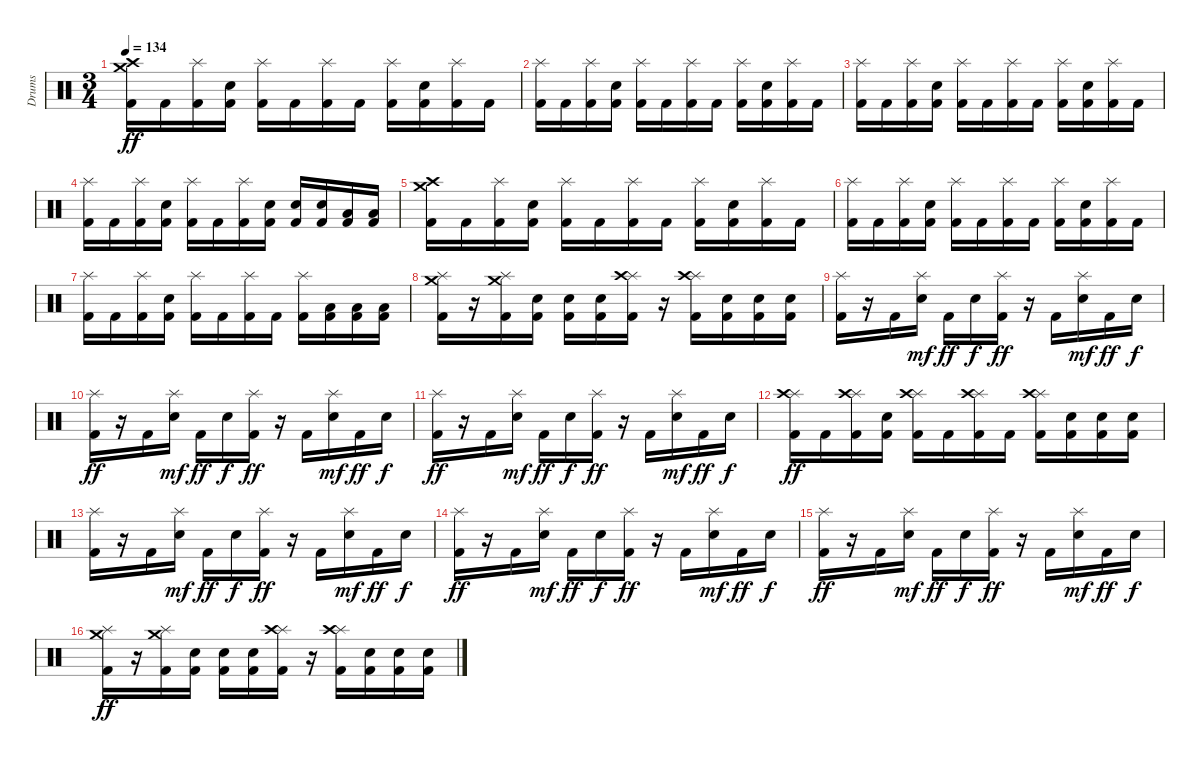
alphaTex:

\track ("Drums" "Drums") {instrument percussion}
\staff {score}
\articulation defaults
\ts (3 4)
\tempo 134
\clef neutral
\ks c
("Crash high (hit)" "Crash medium (hit)" "Kick (hit) 2").16{dy ff} "Kick (hit) 2".16 ("Splash (hit)" "Kick (hit) 2").16 ("Snare (hit) 2" "Kick (hit) 2").16 ("Splash (hit)" "Kick (hit) 2").16 "Kick (hit) 2".16 ("Splash (hit)" "Kick (hit) 2").16 "Kick (hit) 2".16 ("Splash (hit)" "Kick (hit) 2").16 ("Snare (hit) 2" "Kick (hit) 2").16 ("Splash (hit)" "Kick (hit) 2").16 "Kick (hit) 2".16 |
("Splash (hit)" "Kick (hit) 2").16 "Kick (hit) 2".16 ("Splash (hit)" "Kick (hit) 2").16 ("Snare (hit) 2" "Kick (hit) 2").16 ("Splash (hit)" "Kick (hit) 2").16 "Kick (hit) 2".16 ("Splash (hit)" "Kick (hit) 2").16 "Kick (hit) 2".16 ("Splash (hit)" "Kick (hit) 2").16 ("Snare (hit) 2" "Kick (hit) 2").16 ("Splash (hit)" "Kick (hit) 2").16 "Kick (hit) 2".16 |
("Splash (hit)" "Kick (hit) 2").16 "Kick (hit) 2".16 ("Splash (hit)" "Kick (hit) 2").16 ("Snare (hit) 2" "Kick (hit) 2").16 ("Splash (hit)" "Kick (hit) 2").16 "Kick (hit) 2".16 ("Splash (hit)" "Kick (hit) 2").16 "Kick (hit) 2".16 ("Splash (hit)" "Kick (hit) 2").16 ("Snare (hit) 2" "Kick (hit) 2").16 ("Splash (hit)" "Kick (hit) 2").16 "Kick (hit) 2".16 |
("Splash (hit)" "Kick (hit) 2").16 "Kick (hit) 2".16 ("Splash (hit)" "Kick (hit) 2").16 ("Snare (hit) 2" "Kick (hit) 2").16 ("Splash (hit)" "Kick (hit) 2").16 "Kick (hit) 2".16 ("Splash (hit)" "Kick (hit) 2").16 ("Snare (hit) 2" "Kick (hit) 2").16 ("Snare (hit) 2" "Kick (hit) 2").16 ("Snare (hit) 2" "Kick (hit) 2").16 ("Low Tom (hit)" "Kick (hit) 2").16 ("Low Tom (hit)" "Kick (hit) 2").16 |
("Crash high (hit)" "Crash medium (hit)" "Kick (hit) 2").16 "Kick (hit) 2".16 ("Splash (hit)" "Kick (hit) 2").16 ("Snare (hit) 2" "Kick (hit) 2").16 ("Splash (hit)" "Kick (hit) 2").16 "Kick (hit) 2".16 ("Splash (hit)" "Kick (hit) 2").16 "Kick (hit) 2".16 ("Splash (hit)" "Kick (hit) 2").16 ("Snare (hit) 2" "Kick (hit) 2").16 ("Splash (hit)" "Kick (hit) 2").16 "Kick (hit) 2".16 |
("Splash (hit)" "Kick (hit) 2").16 "Kick (hit) 2".16 ("Splash (hit)" "Kick (hit) 2").16 ("Snare (hit) 2" "Kick (hit) 2").16 ("Splash (hit)" "Kick (hit) 2").16 "Kick (hit) 2".16 ("Splash (hit)" "Kick (hit) 2").16 "Kick (hit) 2".16 ("Splash (hit)" "Kick (hit) 2").16 ("Snare (hit) 2" "Kick (hit) 2").16 ("Splash (hit)" "Kick (hit) 2").16 "Kick (hit) 2".16 |
("Splash (hit)" "Kick (hit) 2").16 "Kick (hit) 2".16 ("Splash (hit)" "Kick (hit) 2").16 ("Snare (hit) 2" "Kick (hit) 2").16 ("Splash (hit)" "Kick (hit) 2").16 "Kick (hit) 2".16 ("Splash (hit)" "Kick (hit) 2").16 "Kick (hit) 2".16 ("Splash (hit)" "Kick (hit) 2").16 ("Low Tom (hit)" "Kick (hit) 2").16 ("Low Tom (hit)" "Kick (hit) 2").16 ("Low Tom (hit)" "Kick (hit) 2").16 |
("Splash (hit)" "Crash medium (hit)" "Kick (hit) 2").16 r.16 ("Splash (hit)" "Crash medium (hit)" "Kick (hit) 2").16 ("Snare (hit) 2" "Kick (hit) 2").16 ("Snare (hit) 2" "Kick (hit) 2").16 ("Snare (hit) 2" "Kick (hit) 2").16 ("Splash (hit)" "Crash high (hit)" "Kick (hit) 2").16 r.16 ("Splash (hit)" "Crash high (hit)" "Kick (hit) 2").16 ("Snare (hit) 2" "Kick (hit) 2").16 ("Snare (hit) 2" "Kick (hit) 2").16 ("Snare (hit) 2" "Kick (hit) 2").16 |
("Splash (hit)" "Kick (hit) 2").16 r.16 "Kick (hit) 2".16 ("Splash (hit)" "Snare (hit) 2").16{dy mf} "Kick (hit) 2".16{dy ff} "Snare (hit) 2".16{dy f} ("Splash (hit)" "Kick (hit) 2").16{dy ff} r.16 "Kick (hit) 2".16 ("Splash (hit)" "Snare (hit) 2").16{dy mf} "Kick (hit) 2".16{dy ff} "Snare (hit) 2".16{dy f} |
("Splash (hit)" "Kick (hit) 2").16{dy ff} r.16 "Kick (hit) 2".16 ("Splash (hit)" "Snare (hit) 2").16{dy mf} "Kick (hit) 2".16{dy ff} "Snare (hit) 2".16{dy f} ("Splash (hit)" "Kick (hit) 2").16{dy ff} r.16 "Kick (hit) 2".16 ("Splash (hit)" "Snare (hit) 2").16{dy mf} "Kick (hit) 2".16{dy ff} "Snare (hit) 2".16{dy f} |
("Splash (hit)" "Kick (hit) 2").16{dy ff} r.16 "Kick (hit) 2".16 ("Splash (hit)" "Snare (hit) 2").16{dy mf} "Kick (hit) 2".16{dy ff} "Snare (hit) 2".16{dy f} ("Splash (hit)" "Kick (hit) 2").16{dy ff} r.16 "Kick (hit) 2".16 ("Splash (hit)" "Snare (hit) 2").16{dy mf} "Kick (hit) 2".16{dy ff} "Snare (hit) 2".16{dy f} |
("Splash (hit)" "Crash high (hit)" "Kick (hit) 2").16{dy ff} "Kick (hit) 2".16 ("Splash (hit)" "Crash high (hit)" "Kick (hit) 2").16 ("Snare (hit) 2" "Kick (hit) 2").16 ("Splash (hit)" "Crash high (hit)" "Kick (hit) 2").16 "Kick (hit) 2".16 ("Splash (hit)" "Crash high (hit)" "Kick (hit) 2").16 "Kick (hit) 2".16 ("Splash (hit)" "Crash high (hit)" "Kick (hit) 2").16 ("Snare (hit) 2" "Kick (hit) 2").16 ("Snare (hit) 2" "Kick (hit) 2").16 ("Snare (hit) 2" "Kick (hit) 2").16 |
("Splash (hit)" "Kick (hit) 2").16 r.16 "Kick (hit) 2".16 ("Splash (hit)" "Snare (hit) 2").16{dy mf} "Kick (hit) 2".16{dy ff} "Snare (hit) 2".16{dy f} ("Splash (hit)" "Kick (hit) 2").16{dy ff} r.16 "Kick (hit) 2".16 ("Splash (hit)" "Snare (hit) 2").16{dy mf} "Kick (hit) 2".16{dy ff} "Snare (hit) 2".16{dy f} |
("Splash (hit)" "Kick (hit) 2").16{dy ff} r.16 "Kick (hit) 2".16 ("Splash (hit)" "Snare (hit) 2").16{dy mf} "Kick (hit) 2".16{dy ff} "Snare (hit) 2".16{dy f} ("Splash (hit)" "Kick (hit) 2").16{dy ff} r.16 "Kick (hit) 2".16 ("Splash (hit)" "Snare (hit) 2").16{dy mf} "Kick (hit) 2".16{dy ff} "Snare (hit) 2".16{dy f} |
("Splash (hit)" "Kick (hit) 2").16{dy ff} r.16 "Kick (hit) 2".16 ("Splash (hit)" "Snare (hit) 2").16{dy mf} "Kick (hit) 2".16{dy ff} "Snare (hit) 2".16{dy f} ("Splash (hit)" "Kick (hit) 2").16{dy ff} r.16 "Kick (hit) 2".16 ("Splash (hit)" "Snare (hit) 2").16{dy mf} "Kick (hit) 2".16{dy ff} "Snare (hit) 2".16{dy f} |
("Splash (hit)" "Crash medium (hit)" "Kick (hit) 2").16{dy ff} r.16 ("Splash (hit)" "Crash medium (hit)" "Kick (hit) 2").16 ("Snare (hit) 2" "Kick (hit) 2").16 ("Snare (hit) 2" "Kick (hit) 2").16 ("Snare (hit) 2" "Kick (hit) 2").16 ("Splash (hit)" "Crash high (hit)" "Kick (hit) 2").16 r.16 ("Splash (hit)" "Crash high (hit)" "Kick (hit) 2").16 ("Snare (hit) 2" "Kick (hit) 2").16 ("Snare (hit) 2" "Kick (hit) 2").16 ("Snare (hit) 2" "Kick (hit) 2").16
